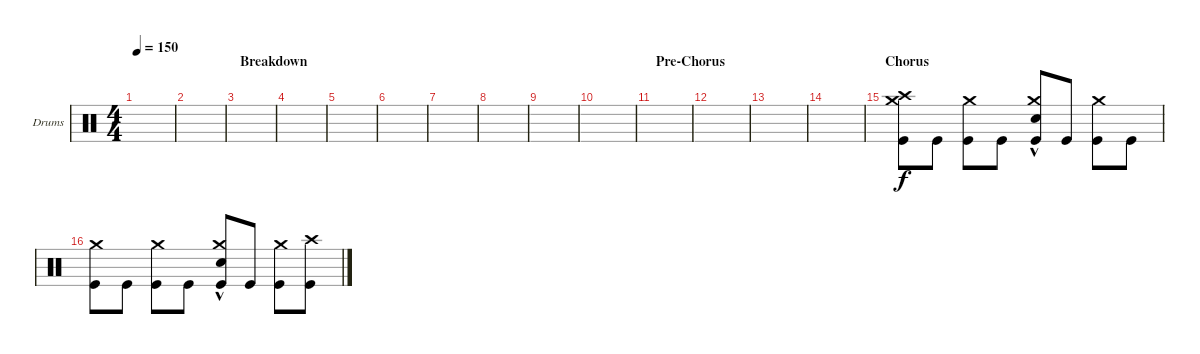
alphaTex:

\bracketExtendMode groupsimilarinstruments
\firstSystemTrackNameOrientation horizontal
\otherSystemsTrackNameOrientation horizontal
\track ("Drowned Drumkit" "Drums") {instrument percussion}
\staff {score}
\articulation defaults
\ts (4 4)
\tempo 150
\clef neutral
\scale
0.333333
\ks aminor
|
\scale
0.333333 |
\section ("" "Breakdown")
\scale
0.333333 |
\scale
0.333333 |
\scale
0.333333 |
\scale
0.333333 |
\scale
0.333333 |
\scale
0.333333 |
\scale
0.333333 |
\scale
0.333333 |
\section ("" "Pre-Chorus")
\scale
0.333333 |
\scale
0.333333 |
\scale
0.333333 |
\scale
0.333333 |
\section ("" "Chorus")
\scale
0.333333 ("Kick (hit)" "Crash medium (hit)" "Crash high (hit)").8 "Kick (hit)".8 ("Kick (hit)" "Crash medium (hit)").8 "Kick (hit)".8 ("Kick (hit)" "Crash medium (hit)" "Snare (hit) 2"{hac}).8 "Kick (hit)".8 ("Kick (hit)" "Crash medium (hit)").8 "Kick (hit)".8 |
\scale
0.333333 ("Kick (hit)" "Crash medium (hit)").8 "Kick (hit)".8 ("Kick (hit)" "Crash medium (hit)").8 "Kick (hit)".8 ("Kick (hit)" "Crash medium (hit)" "Snare (hit) 2"{hac}).8 "Kick (hit)".8 ("Kick (hit)" "Crash medium (hit)").8 ("Kick (hit)" "Crash high (hit)").8
